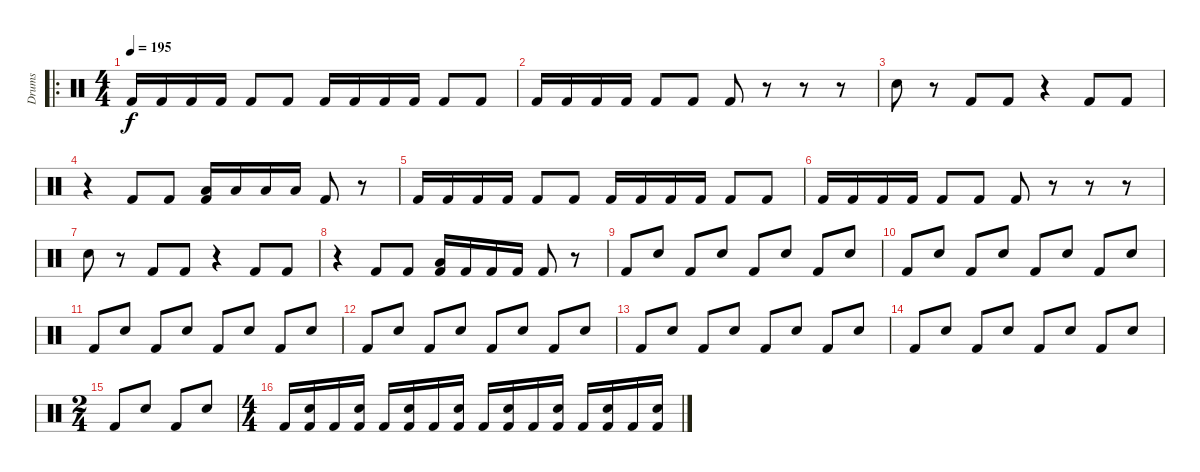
\track ("Drums" "Drums") {instrument percussion}
\staff {score}
\articulation defaults
\ro
\ts (4 4)
\tempo 195
\clef neutral
\ks c "Kick (hit) 2".16{dy f} "Kick (hit) 2".16 "Kick (hit) 2".16 "Kick (hit) 2".16 "Kick (hit) 2".8 "Kick (hit) 2".8 "Kick (hit) 2".16 "Kick (hit) 2".16 "Kick (hit) 2".16 "Kick (hit) 2".16 "Kick (hit) 2".8 "Kick (hit) 2".8
|
"Kick (hit) 2".16 "Kick (hit) 2".16 "Kick (hit) 2".16 "Kick (hit) 2".16 "Kick (hit) 2".8 "Kick (hit) 2".8 "Kick (hit) 2".8 r.8 r.8 r.8 |
"Electric Snare (hit)".8 r.8 "Kick (hit) 2".8 "Kick (hit) 2".8 r.4 "Kick (hit) 2".8 "Kick (hit) 2".8 |
r.4 "Kick (hit) 2".8 "Kick (hit) 2".8 ("Low Floor Tom (hit)" "Kick (hit) 2").16 "Low Floor Tom (hit)".16 "Low Floor Tom (hit)".16 "Low Floor Tom (hit)".16 "Kick (hit) 2".8 r.8 |
"Kick (hit) 2".16 "Kick (hit) 2".16 "Kick (hit) 2".16 "Kick (hit) 2".16 "Kick (hit) 2".8 "Kick (hit) 2".8 "Kick (hit) 2".16 "Kick (hit) 2".16 "Kick (hit) 2".16 "Kick (hit) 2".16 "Kick (hit) 2".8 "Kick (hit) 2".8 |
"Kick (hit) 2".16 "Kick (hit) 2".16 "Kick (hit) 2".16 "Kick (hit) 2".16 "Kick (hit) 2".8 "Kick (hit) 2".8 "Kick (hit) 2".8 r.8 r.8 r.8 |
"Electric Snare (hit)".8 r.8 "Kick (hit) 2".8 "Kick (hit) 2".8 r.4 "Kick (hit) 2".8 "Kick (hit) 2".8 |
r.4 "Kick (hit) 2".8 "Kick (hit) 2".8 ("Low Floor Tom (hit)" "Kick (hit) 2").16 "Kick (hit) 2".16 "Kick (hit) 2".16 "Kick (hit) 2".16 "Kick (hit) 2".8 r.8 |
"Kick (hit) 2".8 "Electric Snare (hit)".8 "Kick (hit) 2".8 "Electric Snare (hit)".8 "Kick (hit) 2".8 "Electric Snare (hit)".8 "Kick (hit) 2".8 "Electric Snare (hit)".8 |
"Kick (hit) 2".8 "Electric Snare (hit)".8 "Kick (hit) 2".8 "Electric Snare (hit)".8 "Kick (hit) 2".8 "Electric Snare (hit)".8 "Kick (hit) 2".8 "Electric Snare (hit)".8 |
"Kick (hit) 2".8 "Electric Snare (hit)".8 "Kick (hit) 2".8 "Electric Snare (hit)".8 "Kick (hit) 2".8 "Electric Snare (hit)".8 "Kick (hit) 2".8 "Electric Snare (hit)".8 |
"Kick (hit) 2".8 "Electric Snare (hit)".8 "Kick (hit) 2".8 "Electric Snare (hit)".8 "Kick (hit) 2".8 "Electric Snare (hit)".8 "Kick (hit) 2".8 "Electric Snare (hit)".8 |
"Kick (hit) 2".8 "Electric Snare (hit)".8 "Kick (hit) 2".8 "Electric Snare (hit)".8 "Kick (hit) 2".8 "Electric Snare (hit)".8 "Kick (hit) 2".8 "Electric Snare (hit)".8 |
"Kick (hit) 2".8 "Electric Snare (hit)".8 "Kick (hit) 2".8 "Electric Snare (hit)".8 "Kick (hit) 2".8 "Electric Snare (hit)".8 "Kick (hit) 2".8 "Electric Snare (hit)".8 |
\ts (2 4)
"Kick (hit) 2".8 "Electric Snare (hit)".8 "Kick (hit) 2".8 "Electric Snare (hit)".8 |
\ts (4 4)
"Kick (hit) 2".16 ("Electric Snare (hit)" "Kick (hit) 2").16 "Kick (hit) 2".16 ("Electric Snare (hit)" "Kick (hit) 2").16 "Kick (hit) 2".16 ("Electric Snare (hit)" "Kick (hit) 2").16 "Kick (hit) 2".16 ("Electric Snare (hit)" "Kick (hit) 2").16 "Kick (hit) 2".16 ("Electric Snare (hit)" "Kick (hit) 2").16 "Kick (hit) 2".16 ("Electric Snare (hit)" "Kick (hit) 2").16 "Kick (hit) 2".16 ("Electric Snare (hit)" "Kick (hit) 2").16 "Kick (hit) 2".16 ("Electric Snare (hit)" "Kick (hit) 2").16
